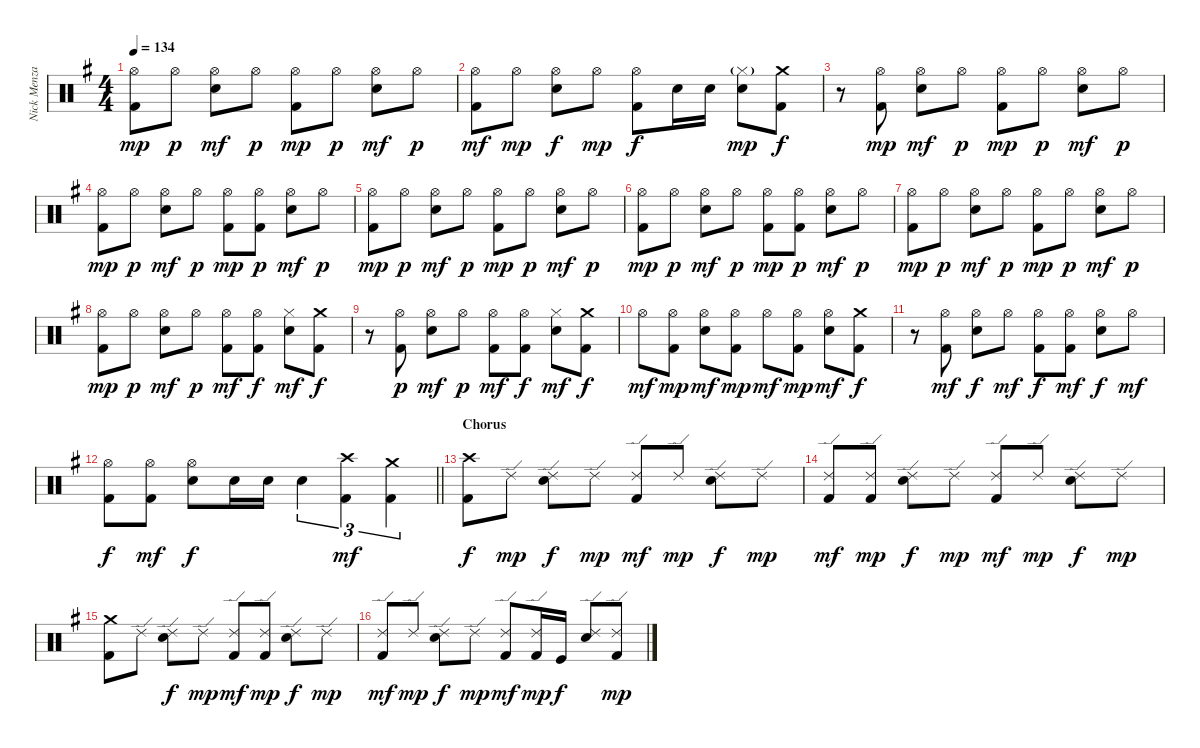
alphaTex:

\track ("Nick Menza" "Nick Menza") {instrument percussion}
\staff {score}
\articulation defaults
\ts (4 4)
\tempo 134
\clef neutral
\ks eminor
("Hi-Hat (open)" "Kick (hit) 2").8{dy mp} "Hi-Hat (open)".8{dy p} ("Hi-Hat (open)" "Snare (hit) 2").8{dy mf} "Hi-Hat (open)".8{dy p} ("Hi-Hat (open)" "Kick (hit) 2").8{dy mp} "Hi-Hat (open)".8{dy p} ("Hi-Hat (open)" "Snare (hit) 2").8{dy mf} "Hi-Hat (open)".8{dy p} |
("Hi-Hat (open)" "Kick (hit) 2").8{dy mf} "Hi-Hat (open)".8{dy mp} ("Hi-Hat (open)" "Snare (hit) 2").8{dy f} "Hi-Hat (open)".8{dy mp} ("Hi-Hat (open)" "Kick (hit) 2").8{dy f} "Snare (hit) 2".16 "Snare (hit) 2".16 ("Hi-Hat (closed)"{g} "Snare (hit) 2").8{dy mp} ("Crash medium (hit)" "Kick (hit) 2").8{dy f} |
r.8 ("Hi-Hat (open)" "Kick (hit) 2").8{dy mp} ("Hi-Hat (open)" "Snare (hit) 2").8{dy mf} "Hi-Hat (open)".8{dy p} ("Hi-Hat (open)" "Kick (hit) 2").8{dy mp} "Hi-Hat (open)".8{dy p} ("Hi-Hat (open)" "Snare (hit) 2").8{dy mf} "Hi-Hat (open)".8{dy p} |
("Hi-Hat (open)" "Kick (hit) 2").8{dy mp} "Hi-Hat (open)".8{dy p} ("Hi-Hat (open)" "Snare (hit) 2").8{dy mf} "Hi-Hat (open)".8{dy p} ("Hi-Hat (open)" "Kick (hit) 2").8{dy mp} ("Hi-Hat (open)" "Kick (hit) 2").8{dy p} ("Hi-Hat (open)" "Snare (hit) 2").8{dy mf} "Hi-Hat (open)".8{dy p} |
("Hi-Hat (open)" "Kick (hit) 2").8{dy mp} "Hi-Hat (open)".8{dy p} ("Hi-Hat (open)" "Snare (hit) 2").8{dy mf} "Hi-Hat (open)".8{dy p} ("Hi-Hat (open)" "Kick (hit) 2").8{dy mp} "Hi-Hat (open)".8{dy p} ("Hi-Hat (open)" "Snare (hit) 2").8{dy mf} "Hi-Hat (open)".8{dy p} |
("Hi-Hat (open)" "Kick (hit) 2").8{dy mp} "Hi-Hat (open)".8{dy p} ("Hi-Hat (open)" "Snare (hit) 2").8{dy mf} "Hi-Hat (open)".8{dy p} ("Hi-Hat (open)" "Kick (hit) 2").8{dy mp} ("Hi-Hat (open)" "Kick (hit) 2").8{dy p} ("Hi-Hat (open)" "Snare (hit) 2").8{dy mf} "Hi-Hat (open)".8{dy p} |
("Hi-Hat (open)" "Kick (hit) 2").8{dy mp} "Hi-Hat (open)".8{dy p} ("Hi-Hat (open)" "Snare (hit) 2").8{dy mf} "Hi-Hat (open)".8{dy p} ("Hi-Hat (open)" "Kick (hit) 2").8{dy mp} "Hi-Hat (open)".8{dy p} ("Hi-Hat (open)" "Snare (hit) 2").8{dy mf} "Hi-Hat (open)".8{dy p} |
("Hi-Hat (open)" "Kick (hit) 2").8{dy mp} "Hi-Hat (open)".8{dy p} ("Hi-Hat (open)" "Snare (hit) 2").8{dy mf} "Hi-Hat (open)".8{dy p} ("Hi-Hat (open)" "Kick (hit) 2").8{dy mf} ("Hi-Hat (open)" "Kick (hit) 2").8{dy f} ("Hi-Hat (closed)" "Snare (hit) 2").8{dy mf} ("Crash medium (hit)" "Kick (hit) 2").8{dy f} |
r.8 ("Hi-Hat (open)" "Kick (hit) 2").8{dy p} ("Hi-Hat (open)" "Snare (hit) 2").8{dy mf} "Hi-Hat (open)".8{dy p} ("Hi-Hat (open)" "Kick (hit) 2").8{dy mf} ("Hi-Hat (open)" "Kick (hit) 2").8{dy f} ("Hi-Hat (closed)" "Snare (hit) 2").8{dy mf} ("Crash medium (hit)" "Kick (hit) 2").8{dy f} |
"Hi-Hat (open)".8{dy mf} ("Hi-Hat (open)" "Kick (hit) 2").8{dy mp} ("Hi-Hat (open)" "Snare (hit) 2").8{dy mf} ("Hi-Hat (open)" "Kick (hit) 2").8{dy mp} "Hi-Hat (open)".8{dy mf} ("Hi-Hat (open)" "Kick (hit) 2").8{dy mp} ("Hi-Hat (open)" "Snare (hit) 2").8{dy mf} ("Crash medium (hit)" "Kick (hit) 2").8{dy f} |
r.8 ("Hi-Hat (open)" "Kick (hit) 2").8{dy mf} ("Hi-Hat (open)" "Snare (hit) 2").8{dy f} "Hi-Hat (open)".8{dy mf} ("Hi-Hat (open)" "Kick (hit) 2").8{dy f} ("Hi-Hat (open)" "Kick (hit) 2").8{dy mf} ("Hi-Hat (open)" "Snare (hit) 2").8{dy f} "Hi-Hat (open)".8{dy mf} |
\barLineRight lightlight
("Hi-Hat (open)" "Kick (hit) 2").8{dy f} ("Hi-Hat (open)" "Kick (hit) 2").8{dy mf} ("Hi-Hat (open)" "Snare (hit) 2").8{dy f} "Snare (hit) 2".16 "Snare (hit) 2".16 "Snare (hit) 2".4{tu (3 2)} ("Crash high (hit)" "Kick (hit) 2").4{tu (3 2) dy mf} ("Crash medium (hit)" "Kick (hit) 2").4{tu (3 2)} |
\section ("" "Chorus")
("Crash high (hit)" "Kick (hit) 2").8{dy f} "Ride (edge) 2".8{dy mp} ("Ride (edge) 2" "Snare (hit) 2").8{dy f} "Ride (edge) 2".8{dy mp} ("Ride (edge) 2" "Kick (hit) 2").8{dy mf} "Ride (edge) 2".8{dy mp} ("Ride (edge) 2" "Snare (hit) 2").8{dy f} "Ride (edge) 2".8{dy mp} |
("Ride (edge) 2" "Kick (hit) 2").8{dy mf} ("Ride (edge) 2" "Kick (hit) 2").8{dy mp} ("Ride (edge) 2" "Snare (hit) 2").8{dy f} "Ride (edge) 2".8{dy mp} ("Ride (edge) 2" "Kick (hit) 2").8{dy mf} "Ride (edge) 2".8{dy mp} ("Ride (edge) 2" "Snare (hit) 2").8{dy f} "Ride (edge) 2".8{dy mp} |
("Crash medium (hit)" "Kick (hit) 2").8 "Ride (edge) 2".8 ("Ride (edge) 2" "Snare (hit) 2").8{dy f} "Ride (edge) 2".8{dy mp} ("Ride (edge) 2" "Kick (hit) 2").8{dy mf} ("Ride (edge) 2" "Kick (hit) 2").8{dy mp} ("Ride (edge) 2" "Snare (hit) 2").8{dy f} "Ride (edge) 2".8{dy mp} |
("Ride (edge) 2" "Kick (hit) 2").8{dy mf} "Ride (edge) 2".8{dy mp} ("Ride (edge) 2" "Snare (hit) 2").8{dy f} "Ride (edge) 2".8{dy mp} ("Ride (edge) 2" "Kick (hit) 2").8{dy mf} ("Ride (edge) 2" "Kick (hit) 2").16{dy mp} "Kick (hit)".16{dy f} ("Ride (edge) 2" "Snare (hit) 2").8 ("Ride (edge) 2" "Kick (hit) 2").8{dy mp}
